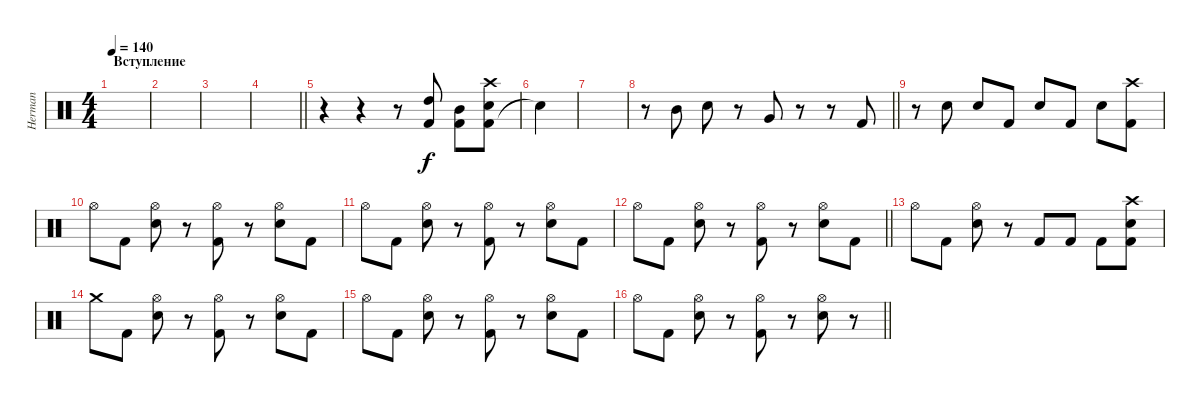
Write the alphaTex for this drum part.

\track ("Herman" "Herman") {instrument percussion}
\staff {score}
\articulation defaults
\ts (4 4)
\section ("" "Вступление")
\tempo 140
\clef neutral
\ks c
|
|
|
\barLineRight lightlight
|
r.4 r.4 r.8 ("Kick (hit) 2" "High Tom (hit)").8 ("Kick (hit) 2" "Mid Tom (hit)").8 ("Kick (hit) 2" "Electric Snare (hit)" "Crash high (hit)").8 |
"Snare (hit)"{t}.4{dy f} |
|
\barLineRight lightlight
r.8 "Mid Tom (hit)".8 "Electric Snare (hit)".8 r.8 "Very Low Tom (hit)".8 r.8 r.8 "Kick (hit) 2".8 |
r.8 "Electric Snare (hit)".8 "Electric Snare (hit)".8 "Kick (hit) 2".8 "Electric Snare (hit)".8 "Kick (hit) 2".8 "Electric Snare (hit)".8 ("Crash high (hit)" "Kick (hit) 2").8 |
"Hi-Hat (open)".8 "Kick (hit) 2".8 ("Hi-Hat (open)" "Electric Snare (hit)").8 r.8 ("Hi-Hat (open)" "Kick (hit) 2").8 r.8 ("Hi-Hat (open)" "Electric Snare (hit)").8 "Kick (hit) 2".8 |
"Hi-Hat (open)".8 "Kick (hit) 2".8 ("Hi-Hat (open)" "Electric Snare (hit)").8 r.8 ("Hi-Hat (open)" "Kick (hit) 2").8 r.8 ("Hi-Hat (open)" "Electric Snare (hit)").8 "Kick (hit) 2".8 |
\barLineRight lightlight "Hi-Hat (open)".8 "Kick (hit) 2".8
("Hi-Hat (open)" "Electric Snare (hit)").8 r.8 ("Hi-Hat (open)" "Kick (hit) 2").8 r.8 ("Hi-Hat (open)" "Electric Snare (hit)").8 "Kick (hit) 2".8 |
"Hi-Hat (open)".8 "Kick (hit) 2".8 ("Hi-Hat (open)" "Electric Snare (hit)").8 r.8 "Kick (hit) 2".8 "Kick (hit) 2".8 "Kick (hit) 2".8 ("Crash high (hit)" "Kick (hit) 2" "Electric Snare (hit)").8 |
"Crash medium (hit)".8 "Kick (hit) 2".8 ("Hi-Hat (open)" "Electric Snare (hit)").8 r.8 ("Hi-Hat (open)" "Kick (hit) 2").8 r.8 ("Hi-Hat (open)" "Electric Snare (hit)").8 "Kick (hit) 2".8 |
"Hi-Hat (open)".8 "Kick (hit) 2".8 ("Hi-Hat (open)" "Electric Snare (hit)").8 r.8 ("Hi-Hat (open)" "Kick (hit) 2").8 r.8 ("Hi-Hat (open)" "Electric Snare (hit)").8 "Kick (hit) 2".8 |
\barLineRight lightlight "Hi-Hat (open)".8 "Kick (hit) 2".8
("Hi-Hat (open)" "Electric Snare (hit)").8 r.8 ("Hi-Hat (open)" "Kick (hit) 2").8 r.8 ("Hi-Hat (open)" "Electric Snare (hit)").8 r.8
